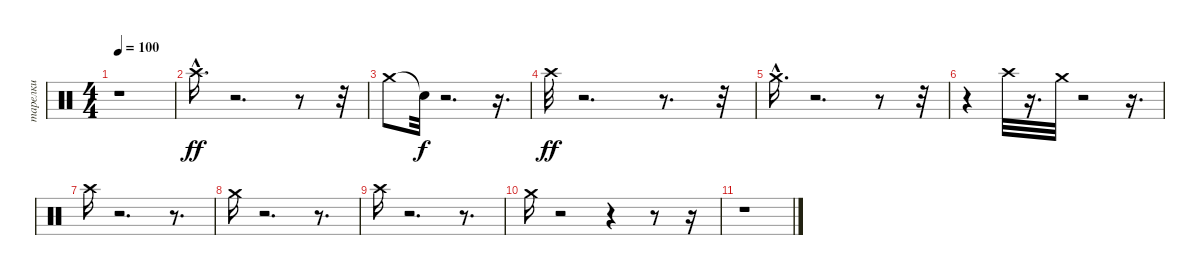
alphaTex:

\track ("тарелки" "тарелки") {instrument percussion}
\staff {score}
\articulation defaults
\ts (4 4)
\tempo 100
\clef neutral
\ks c
r.1{dy ff} |
"Crash high (hit)"{hac}.16{d} r.2{d} r.8 r.32 |
"Crash medium (hit)".8 "Snare (hit)"{t}.32{dy f} r.2{d} r.16{d} |
"Crash high (hit)".32{dy ff} r.2{d} r.8{d} r.32 |
"Crash medium (hit)"{hac}.16{d} r.2{d} r.8 r.32 |
r.4 "Crash high (hit)".32 r.16{d} "Crash medium (hit)".32 r.2 r.16{d} |
"Crash high (hit)".16 r.2{d} r.8{d} |
"Crash medium (hit)".16 r.2{d} r.8{d} |
"Crash high (hit)".16 r.2{d} r.8{d} |
"Crash medium (hit)".16 r.2 r.4 r.8 r.16 |
r.1
